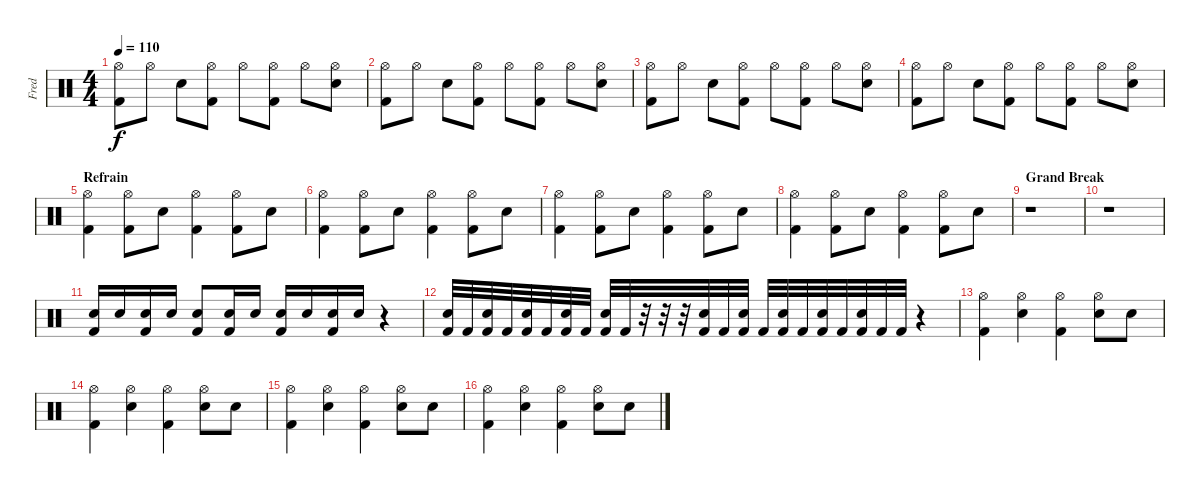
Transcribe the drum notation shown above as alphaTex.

\track ("Fred" "Fred") {instrument percussion}
\staff {score}
\articulation defaults
\ts (4 4)
\tempo 110
\clef neutral
\ks c
("Hi-Hat (open)" "Kick (hit) 2").8{dy f} "Hi-Hat (open)".8 "Electric Snare (hit)".8 ("Hi-Hat (open)" "Kick (hit) 2").8 "Hi-Hat (open)".8 ("Hi-Hat (open)" "Kick (hit) 2").8 "Hi-Hat (open)".8 ("Hi-Hat (open)" "Electric Snare (hit)").8 |
("Hi-Hat (open)" "Kick (hit) 2").8 "Hi-Hat (open)".8 "Electric Snare (hit)".8 ("Hi-Hat (open)" "Kick (hit) 2").8 "Hi-Hat (open)".8 ("Hi-Hat (open)" "Kick (hit) 2").8 "Hi-Hat (open)".8 ("Hi-Hat (open)" "Electric Snare (hit)").8 |
("Hi-Hat (open)" "Kick (hit) 2").8 "Hi-Hat (open)".8 "Electric Snare (hit)".8 ("Hi-Hat (open)" "Kick (hit) 2").8 "Hi-Hat (open)".8 ("Hi-Hat (open)" "Kick (hit) 2").8 "Hi-Hat (open)".8 ("Hi-Hat (open)" "Electric Snare (hit)").8 |
("Hi-Hat (open)" "Kick (hit) 2").8 "Hi-Hat (open)".8 "Electric Snare (hit)".8 ("Hi-Hat (open)" "Kick (hit) 2").8 "Hi-Hat (open)".8 ("Hi-Hat (open)" "Kick (hit) 2").8 "Hi-Hat (open)".8 ("Hi-Hat (open)" "Electric Snare (hit)").8 |
\section ("" "Refrain")
("Hi-Hat (open)" "Kick (hit) 2").4 ("Hi-Hat (open)" "Kick (hit) 2").8 "Electric Snare (hit)".8 ("Hi-Hat (open)" "Kick (hit) 2").4 ("Hi-Hat (open)" "Kick (hit) 2").8 "Electric Snare (hit)".8 |
("Hi-Hat (open)" "Kick (hit) 2").4 ("Hi-Hat (open)" "Kick (hit) 2").8 "Electric Snare (hit)".8 ("Hi-Hat (open)" "Kick (hit) 2").4 ("Hi-Hat (open)" "Kick (hit) 2").8 "Electric Snare (hit)".8 |
("Hi-Hat (open)" "Kick (hit) 2").4 ("Hi-Hat (open)" "Kick (hit) 2").8 "Electric Snare (hit)".8 ("Hi-Hat (open)" "Kick (hit) 2").4 ("Hi-Hat (open)" "Kick (hit) 2").8 "Electric Snare (hit)".8 |
("Hi-Hat (open)" "Kick (hit) 2").4 ("Hi-Hat (open)" "Kick (hit) 2").8 "Electric Snare (hit)".8 ("Hi-Hat (open)" "Kick (hit) 2").4 ("Hi-Hat (open)" "Kick (hit) 2").8 "Electric Snare (hit)".8 |
\section ("" "Grand Break")
r.1 |
r.1 |
("Electric Snare (hit)" "Kick (hit) 2").16 "Electric Snare (hit)".16 ("Electric Snare (hit)" "Kick (hit) 2").16 "Electric Snare (hit)".16 ("Electric Snare (hit)" "Kick (hit) 2").8 ("Electric Snare (hit)" "Kick (hit) 2").16 "Electric Snare (hit)".16 ("Electric Snare (hit)" "Kick (hit) 2").16 "Electric Snare (hit)".16 ("Electric Snare (hit)" "Kick (hit) 2").16 "Electric Snare (hit)".16 r.4 |
("Electric Snare (hit)" "Kick (hit) 2").32 "Kick (hit) 2".32 ("Electric Snare (hit)" "Kick (hit) 2").32 "Kick (hit) 2".32 ("Electric Snare (hit)" "Kick (hit) 2").32 "Kick (hit) 2".32 ("Electric Snare (hit)" "Kick (hit) 2").32 "Kick (hit) 2".32 ("Electric Snare (hit)" "Kick (hit) 2").32 "Kick (hit) 2".32 r.32 r.32 r.32 ("Electric Snare (hit)" "Kick (hit) 2").32 "Kick (hit) 2".32 ("Electric Snare (hit)" "Kick (hit) 2").32 "Kick (hit) 2".32 ("Electric Snare (hit)" "Kick (hit) 2").32 "Kick (hit) 2".32 ("Electric Snare (hit)" "Kick (hit) 2").32 "Kick (hit) 2".32 ("Electric Snare (hit)" "Kick (hit) 2").32 "Kick (hit) 2".32 "Kick (hit) 2".32 r.4 |
("Hi-Hat (open)" "Kick (hit) 2").4 ("Hi-Hat (open)" "Electric Snare (hit)").4 ("Hi-Hat (open)" "Kick (hit) 2").4 ("Hi-Hat (open)" "Electric Snare (hit)").8 "Electric Snare (hit)".8 |
("Hi-Hat (open)" "Kick (hit) 2").4 ("Hi-Hat (open)" "Electric Snare (hit)").4 ("Hi-Hat (open)" "Kick (hit) 2").4 ("Hi-Hat (open)" "Electric Snare (hit)").8 "Electric Snare (hit)".8 |
("Hi-Hat (open)" "Kick (hit) 2").4 ("Hi-Hat (open)" "Electric Snare (hit)").4 ("Hi-Hat (open)" "Kick (hit) 2").4 ("Hi-Hat (open)" "Electric Snare (hit)").8 "Electric Snare (hit)".8 |
("Hi-Hat (open)" "Kick (hit) 2").4 ("Hi-Hat (open)" "Electric Snare (hit)").4 ("Hi-Hat (open)" "Kick (hit) 2").4 ("Hi-Hat (open)" "Electric Snare (hit)").8 "Electric Snare (hit)".8
